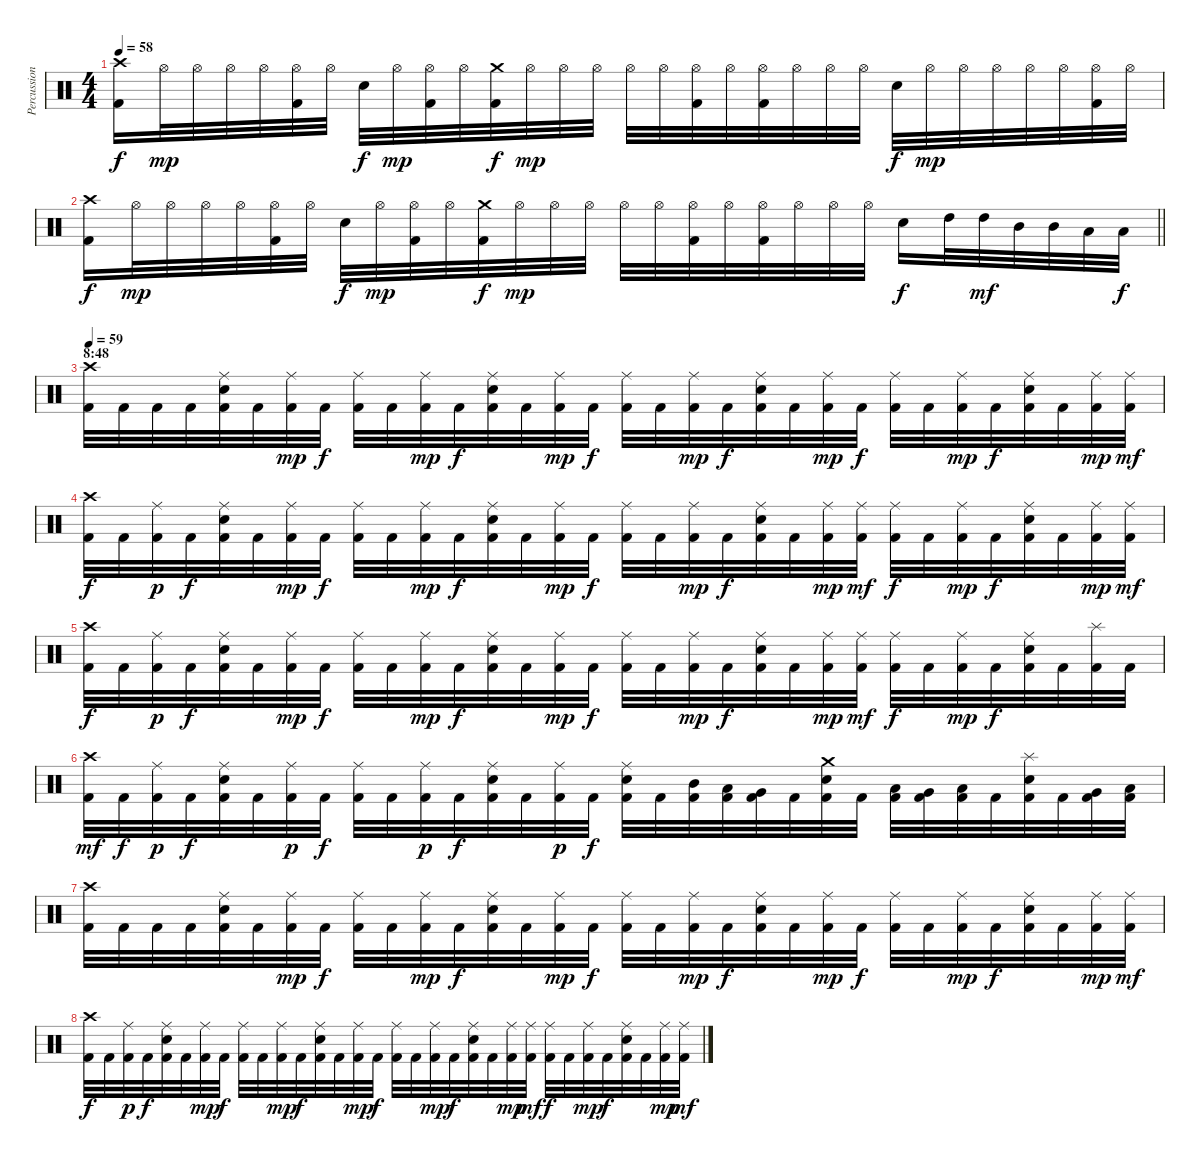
\track ("Percussions" "Percussion") {instrument percussion}
\staff {score}
\articulation defaults
\ts (4 4)
\tempo 58
\clef neutral
\ks c
("Crash high (hit)" "Kick (hit) 2").16{dy f} "Hi-Hat (open)".32{dy mp} "Hi-Hat (open)".32 "Hi-Hat (open)".32 "Hi-Hat (open)".32 ("Hi-Hat (open)" "Kick (hit) 2").32 "Hi-Hat (open)".32 "Snare (hit) 2".32{dy f} "Hi-Hat (open)".32{dy mp} ("Hi-Hat (open)" "Kick (hit) 2").32 "Hi-Hat (open)".32 ("Crash medium (hit)" "Kick (hit) 2").32{dy f} "Hi-Hat (open)".32{dy mp} "Hi-Hat (open)".32 "Hi-Hat (open)".32 "Hi-Hat (open)".32 "Hi-Hat (open)".32 ("Hi-Hat (open)" "Kick (hit) 2").32 "Hi-Hat (open)".32 ("Hi-Hat (open)" "Kick (hit) 2").32 "Hi-Hat (open)".32 "Hi-Hat (open)".32 "Hi-Hat (open)".32 "Snare (hit) 2".32{dy f} "Hi-Hat (open)".32{dy mp} "Hi-Hat (open)".32 "Hi-Hat (open)".32 "Hi-Hat (open)".32 "Hi-Hat (open)".32 ("Hi-Hat (open)" "Kick (hit) 2").32 "Hi-Hat (open)".32 |
\barLineRight lightlight
("Crash high (hit)" "Kick (hit) 2").16{dy f} "Hi-Hat (open)".32{dy mp} "Hi-Hat (open)".32 "Hi-Hat (open)".32 "Hi-Hat (open)".32 ("Hi-Hat (open)" "Kick (hit) 2").32 "Hi-Hat (open)".32 "Snare (hit) 2".32{dy f} "Hi-Hat (open)".32{dy mp} ("Hi-Hat (open)" "Kick (hit) 2").32 "Hi-Hat (open)".32 ("Crash medium (hit)" "Kick (hit) 2").32{dy f} "Hi-Hat (open)".32{dy mp} "Hi-Hat (open)".32 "Hi-Hat (open)".32 "Hi-Hat (open)".32 "Hi-Hat (open)".32 ("Hi-Hat (open)" "Kick (hit) 2").32 "Hi-Hat (open)".32 ("Hi-Hat (open)" "Kick (hit) 2").32 "Hi-Hat (open)".32 "Hi-Hat (open)".32 "Hi-Hat (open)".32 "Snare (hit) 2".16{dy f} "High Tom (hit)".32 "High Tom (hit)".32{dy mf} "Mid Tom (hit)".32 "Mid Tom (hit)".32 "Low Tom (hit)".32 "Low Tom (hit)".32{dy f} |
\section ("" "8:48")
\tempo 59
("Crash high (hit)" "Kick (hit) 2").32 "Kick (hit) 2".32 "Kick (hit) 2".32 "Kick (hit) 2".32 ("Ride (middle)" "Snare (hit) 2" "Kick (hit) 2").32 "Kick (hit) 2".32 ("Ride (middle)" "Kick (hit) 2").32{dy mp} "Kick (hit) 2".32{dy f} ("Ride (middle)" "Kick (hit) 2").32 "Kick (hit) 2".32 ("Ride (middle)" "Kick (hit) 2").32{dy mp} "Kick (hit) 2".32{dy f} ("Ride (middle)" "Snare (hit) 2" "Kick (hit) 2").32 "Kick (hit) 2".32 ("Ride (middle)" "Kick (hit) 2").32{dy mp} "Kick (hit) 2".32{dy f} ("Ride (middle)" "Kick (hit) 2").32 "Kick (hit) 2".32 ("Ride (middle)" "Kick (hit) 2").32{dy mp} "Kick (hit) 2".32{dy f} ("Ride (middle)" "Snare (hit) 2" "Kick (hit) 2").32 "Kick (hit) 2".32 ("Ride (middle)" "Kick (hit) 2").32{dy mp} "Kick (hit) 2".32{dy f} ("Ride (middle)" "Kick (hit) 2").32 "Kick (hit) 2".32 ("Ride (middle)" "Kick (hit) 2").32{dy mp} "Kick (hit) 2".32{dy f} ("Ride (middle)" "Snare (hit) 2" "Kick (hit) 2").32 "Kick (hit) 2".32 ("Ride (middle)" "Kick (hit) 2").32{dy mp} ("Ride (middle)" "Kick (hit) 2").32{dy mf} |
("Crash high (hit)" "Kick (hit) 2").32{dy f} "Kick (hit) 2".32 ("Ride (middle)" "Kick (hit) 2").32{dy p} "Kick (hit) 2".32{dy f} ("Ride (middle)" "Snare (hit) 2" "Kick (hit) 2").32 "Kick (hit) 2".32 ("Ride (middle)" "Kick (hit) 2").32{dy mp} "Kick (hit) 2".32{dy f} ("Ride (middle)" "Kick (hit) 2").32 "Kick (hit) 2".32 ("Ride (middle)" "Kick (hit) 2").32{dy mp} "Kick (hit) 2".32{dy f} ("Ride (middle)" "Snare (hit) 2" "Kick (hit) 2").32 "Kick (hit) 2".32 ("Ride (middle)" "Kick (hit) 2").32{dy mp} "Kick (hit) 2".32{dy f} ("Ride (middle)" "Kick (hit) 2").32 "Kick (hit) 2".32 ("Ride (middle)" "Kick (hit) 2").32{dy mp} "Kick (hit) 2".32{dy f} ("Ride (middle)" "Snare (hit) 2" "Kick (hit) 2").32 "Kick (hit) 2".32 ("Ride (middle)" "Kick (hit) 2").32{dy mp} ("Ride (middle)" "Kick (hit) 2").32{dy mf} ("Ride (middle)" "Kick (hit) 2").32{dy f} "Kick (hit) 2".32 ("Ride (middle)" "Kick (hit) 2").32{dy mp} "Kick (hit) 2".32{dy f} ("Ride (middle)" "Snare (hit) 2" "Kick (hit) 2").32 "Kick (hit) 2".32 ("Ride (middle)" "Kick (hit) 2").32{dy mp} ("Ride (middle)" "Kick (hit) 2").32{dy mf} |
("Crash high (hit)" "Kick (hit) 2").32{dy f} "Kick (hit) 2".32 ("Ride (middle)" "Kick (hit) 2").32{dy p} "Kick (hit) 2".32{dy f} ("Ride (middle)" "Snare (hit) 2" "Kick (hit) 2").32 "Kick (hit) 2".32 ("Ride (middle)" "Kick (hit) 2").32{dy mp} "Kick (hit) 2".32{dy f} ("Ride (middle)" "Kick (hit) 2").32 "Kick (hit) 2".32 ("Ride (middle)" "Kick (hit) 2").32{dy mp} "Kick (hit) 2".32{dy f} ("Ride (middle)" "Snare (hit) 2" "Kick (hit) 2").32 "Kick (hit) 2".32 ("Ride (middle)" "Kick (hit) 2").32{dy mp} "Kick (hit) 2".32{dy f} ("Ride (middle)" "Kick (hit) 2").32 "Kick (hit) 2".32 ("Ride (middle)" "Kick (hit) 2").32{dy mp} "Kick (hit) 2".32{dy f} ("Ride (middle)" "Snare (hit) 2" "Kick (hit) 2").32 "Kick (hit) 2".32 ("Ride (middle)" "Kick (hit) 2").32{dy mp} ("Ride (middle)" "Kick (hit) 2").32{dy mf} ("Ride (middle)" "Kick (hit) 2").32{dy f} "Kick (hit) 2".32 ("Ride (middle)" "Kick (hit) 2").32{dy mp} "Kick (hit) 2".32{dy f} ("Ride (middle)" "Snare (hit) 2" "Kick (hit) 2").32 "Kick (hit) 2".32 ("Splash (hit)" "Kick (hit) 2").32 "Kick (hit) 2".32 |
("Crash high (hit)" "Kick (hit) 2").32{dy mf} "Kick (hit) 2".32{dy f} ("Ride (middle)" "Kick (hit) 2").32{dy p} "Kick (hit) 2".32{dy f} ("Ride (middle)" "Snare (hit) 2" "Kick (hit) 2").32 "Kick (hit) 2".32 ("Ride (middle)" "Kick (hit) 2").32{dy p} "Kick (hit) 2".32{dy f} ("Ride (middle)" "Kick (hit) 2").32 "Kick (hit) 2".32 ("Ride (middle)" "Kick (hit) 2").32{dy p} "Kick (hit) 2".32{dy f} ("Ride (middle)" "Snare (hit) 2" "Kick (hit) 2").32 "Kick (hit) 2".32 ("Ride (middle)" "Kick (hit) 2").32{dy p} "Kick (hit) 2".32{dy f} ("Ride (middle)" "Snare (hit) 2" "Kick (hit) 2").32 "Kick (hit) 2".32 ("Mid Tom (hit)" "Kick (hit) 2").32 ("Low Tom (hit)" "Kick (hit) 2").32 ("Very Low Tom (hit)" "Kick (hit) 2").32 "Kick (hit) 2".32 ("Crash medium (hit)" "Snare (hit) 2" "Kick (hit) 2").32 "Kick (hit) 2".32 ("Low Tom (hit)" "Kick (hit) 2").32 ("Very Low Tom (hit)" "Kick (hit) 2").32 ("Low Floor Tom (hit)" "Kick (hit) 2").32 "Kick (hit) 2".32 ("Splash (hit)" "Snare (hit) 2" "Kick (hit) 2").32 "Kick (hit) 2".32 ("Very Low Tom (hit)" "Kick (hit) 2").32 ("Low Floor Tom (hit)" "Kick (hit) 2").32 |
("Crash high (hit)" "Kick (hit) 2").32 "Kick (hit) 2".32 "Kick (hit) 2".32 "Kick (hit) 2".32 ("Ride (middle)" "Snare (hit) 2" "Kick (hit) 2").32 "Kick (hit) 2".32 ("Ride (middle)" "Kick (hit) 2").32{dy mp} "Kick (hit) 2".32{dy f} ("Ride (middle)" "Kick (hit) 2").32 "Kick (hit) 2".32 ("Ride (middle)" "Kick (hit) 2").32{dy mp} "Kick (hit) 2".32{dy f} ("Ride (middle)" "Snare (hit) 2" "Kick (hit) 2").32 "Kick (hit) 2".32 ("Ride (middle)" "Kick (hit) 2").32{dy mp} "Kick (hit) 2".32{dy f} ("Ride (middle)" "Kick (hit) 2").32 "Kick (hit) 2".32 ("Ride (middle)" "Kick (hit) 2").32{dy mp} "Kick (hit) 2".32{dy f} ("Ride (middle)" "Snare (hit) 2" "Kick (hit) 2").32 "Kick (hit) 2".32 ("Ride (middle)" "Kick (hit) 2").32{dy mp} "Kick (hit) 2".32{dy f} ("Ride (middle)" "Kick (hit) 2").32 "Kick (hit) 2".32 ("Ride (middle)" "Kick (hit) 2").32{dy mp} "Kick (hit) 2".32{dy f} ("Ride (middle)" "Snare (hit) 2" "Kick (hit) 2").32 "Kick (hit) 2".32 ("Ride (middle)" "Kick (hit) 2").32{dy mp} ("Ride (middle)" "Kick (hit) 2").32{dy mf} |
("Crash high (hit)" "Kick (hit) 2").32{dy f} "Kick (hit) 2".32 ("Ride (middle)" "Kick (hit) 2").32{dy p} "Kick (hit) 2".32{dy f} ("Ride (middle)" "Snare (hit) 2" "Kick (hit) 2").32 "Kick (hit) 2".32 ("Ride (middle)" "Kick (hit) 2").32{dy mp} "Kick (hit) 2".32{dy f} ("Ride (middle)" "Kick (hit) 2").32 "Kick (hit) 2".32 ("Ride (middle)" "Kick (hit) 2").32{dy mp} "Kick (hit) 2".32{dy f} ("Ride (middle)" "Snare (hit) 2" "Kick (hit) 2").32 "Kick (hit) 2".32 ("Ride (middle)" "Kick (hit) 2").32{dy mp} "Kick (hit) 2".32{dy f} ("Ride (middle)" "Kick (hit) 2").32 "Kick (hit) 2".32 ("Ride (middle)" "Kick (hit) 2").32{dy mp} "Kick (hit) 2".32{dy f} ("Ride (middle)" "Snare (hit) 2" "Kick (hit) 2").32 "Kick (hit) 2".32 ("Ride (middle)" "Kick (hit) 2").32{dy mp} ("Ride (middle)" "Kick (hit) 2").32{dy mf} ("Ride (middle)" "Kick (hit) 2").32{dy f} "Kick (hit) 2".32 ("Ride (middle)" "Kick (hit) 2").32{dy mp} "Kick (hit) 2".32{dy f} ("Ride (middle)" "Snare (hit) 2" "Kick (hit) 2").32 "Kick (hit) 2".32 ("Ride (middle)" "Kick (hit) 2").32{dy mp} ("Ride (middle)" "Kick (hit) 2").32{dy mf}
